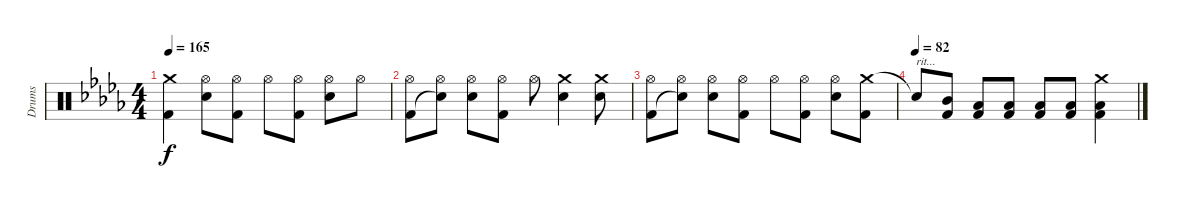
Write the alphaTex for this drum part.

\track ("Drums" "Drums") {instrument percussion}
\staff {score}
\articulation defaults
\ts (4 4)
\tempo 165
\clef neutral
\ks bbminor
("Crash medium (hit)" "Kick (hit) 2").4{dy f} ("Hi-Hat (open)" "Electric Snare (hit)").8 ("Hi-Hat (open)" "Kick (hit) 2").8 "Hi-Hat (open)".8 ("Hi-Hat (open)" "Kick (hit) 2").8 ("Hi-Hat (open)" "Electric Snare (hit)").8 "Hi-Hat (open)".8 |
("Hi-Hat (open)" "Kick (hit) 2").8 ("Hi-Hat (open)" "Snare (hit)"{t}).8 ("Hi-Hat (open)" "Electric Snare (hit)").8 ("Hi-Hat (open)" "Kick (hit) 2").8 "Hi-Hat (open)".8 ("Crash medium (hit)" "Electric Snare (hit)").4 ("Crash medium (hit)" "Electric Snare (hit)").8 |
("Hi-Hat (open)" "Kick (hit) 2").8 ("Hi-Hat (open)" "Snare (hit)"{t}).8 ("Hi-Hat (open)" "Electric Snare (hit)").8 ("Hi-Hat (open)" "Kick (hit) 2").8 "Hi-Hat (open)".8 ("Hi-Hat (open)" "Kick (hit) 2").8 ("Hi-Hat (open)" "Electric Snare (hit)").8 ("Crash medium (hit)" "Kick (hit) 2").8 |
\tempo (82)
"Snare (hit)"{t}.8{txt "rit..."} ("Mid Tom (hit)" "Kick (hit) 2").8 ("Low Tom (hit)" "Kick (hit) 2").8 ("Low Tom (hit)" "Kick (hit) 2").8 ("Low Tom (hit)" "Kick (hit) 2").8 ("Low Floor Tom (hit)" "Kick (hit) 2").8 ("Crash medium (hit)" "Low Floor Tom (hit)" "Kick (hit) 2").4
